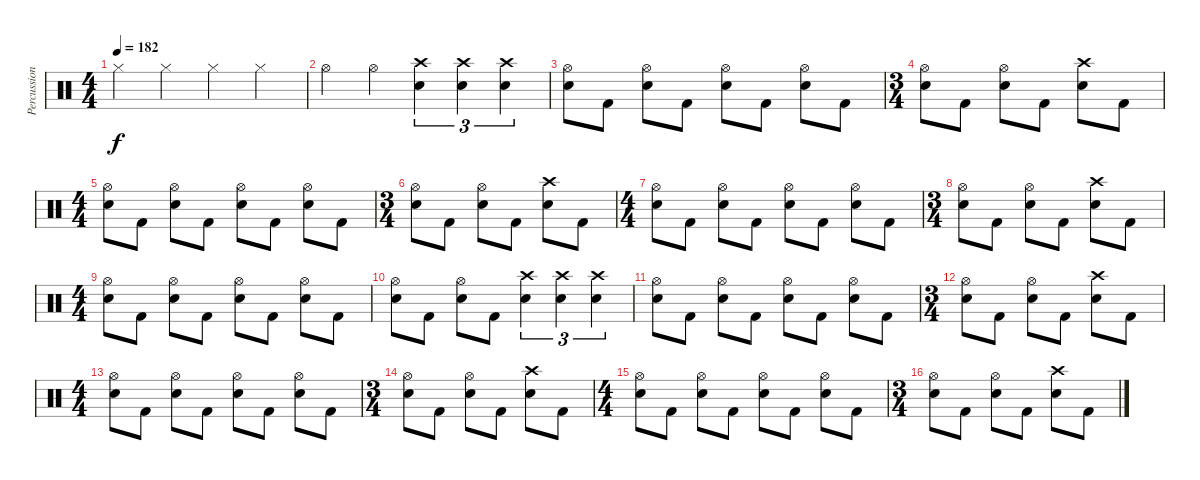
\track ("Percussion" "Percussion") {instrument percussion}
\staff {score}
\articulation defaults
\ts (4 4)
\tempo 182
\clef neutral
\ks c "Hi-Hat (closed)".4{dy f} "Hi-Hat (closed)".4 "Hi-Hat (closed)".4 "Hi-Hat (closed)".4
|
"Hi-Hat (open)".4 "Hi-Hat (open)".4 ("Crash high (hit)" "Snare (hit) 2").4{tu (3 2)} ("Crash high (hit)" "Snare (hit) 2").4{tu (3 2)} ("Crash high (hit)" "Snare (hit) 2").4{tu (3 2)} |
("Hi-Hat (open)" "Snare (hit) 2").8 "Kick (hit) 2".8 ("Hi-Hat (open)" "Snare (hit) 2").8 "Kick (hit) 2".8 ("Hi-Hat (open)" "Snare (hit) 2").8 "Kick (hit) 2".8 ("Hi-Hat (open)" "Snare (hit) 2").8 "Kick (hit) 2".8 |
\ts (3 4)
("Hi-Hat (open)" "Snare (hit) 2").8 "Kick (hit) 2".8 ("Hi-Hat (open)" "Snare (hit) 2").8 "Kick (hit) 2".8 ("Crash high (hit)" "Snare (hit) 2").8 "Kick (hit) 2".8 |
\ts (4 4)
("Hi-Hat (open)" "Snare (hit) 2").8 "Kick (hit) 2".8 ("Hi-Hat (open)" "Snare (hit) 2").8 "Kick (hit) 2".8 ("Hi-Hat (open)" "Snare (hit) 2").8 "Kick (hit) 2".8 ("Hi-Hat (open)" "Snare (hit) 2").8 "Kick (hit) 2".8 |
\ts (3 4)
("Hi-Hat (open)" "Snare (hit) 2").8 "Kick (hit) 2".8 ("Hi-Hat (open)" "Snare (hit) 2").8 "Kick (hit) 2".8 ("Crash high (hit)" "Snare (hit) 2").8 "Kick (hit) 2".8 |
\ts (4 4)
("Hi-Hat (open)" "Snare (hit) 2").8 "Kick (hit) 2".8 ("Hi-Hat (open)" "Snare (hit) 2").8 "Kick (hit) 2".8 ("Hi-Hat (open)" "Snare (hit) 2").8 "Kick (hit) 2".8 ("Hi-Hat (open)" "Snare (hit) 2").8 "Kick (hit) 2".8 |
\ts (3 4)
("Hi-Hat (open)" "Snare (hit) 2").8 "Kick (hit) 2".8 ("Hi-Hat (open)" "Snare (hit) 2").8 "Kick (hit) 2".8 ("Crash high (hit)" "Snare (hit) 2").8 "Kick (hit) 2".8 |
\ts (4 4)
("Hi-Hat (open)" "Snare (hit) 2").8 "Kick (hit) 2".8 ("Hi-Hat (open)" "Snare (hit) 2").8 "Kick (hit) 2".8 ("Hi-Hat (open)" "Snare (hit) 2").8 "Kick (hit) 2".8 ("Hi-Hat (open)" "Snare (hit) 2").8 "Kick (hit) 2".8 |
("Hi-Hat (open)" "Snare (hit) 2").8 "Kick (hit) 2".8 ("Hi-Hat (open)" "Snare (hit) 2").8 "Kick (hit) 2".8 ("Crash high (hit)" "Snare (hit) 2").4{tu (3 2)} ("Crash high (hit)" "Snare (hit) 2").4{tu (3 2)} ("Crash high (hit)" "Snare (hit) 2").4{tu (3 2)} |
("Hi-Hat (open)" "Snare (hit) 2").8 "Kick (hit) 2".8 ("Hi-Hat (open)" "Snare (hit) 2").8 "Kick (hit) 2".8 ("Hi-Hat (open)" "Snare (hit) 2").8 "Kick (hit) 2".8 ("Hi-Hat (open)" "Snare (hit) 2").8 "Kick (hit) 2".8 |
\ts (3 4)
("Hi-Hat (open)" "Snare (hit) 2").8 "Kick (hit) 2".8 ("Hi-Hat (open)" "Snare (hit) 2").8 "Kick (hit) 2".8 ("Crash high (hit)" "Snare (hit) 2").8 "Kick (hit) 2".8 |
\ts (4 4)
("Hi-Hat (open)" "Snare (hit) 2").8 "Kick (hit) 2".8 ("Hi-Hat (open)" "Snare (hit) 2").8 "Kick (hit) 2".8 ("Hi-Hat (open)" "Snare (hit) 2").8 "Kick (hit) 2".8 ("Hi-Hat (open)" "Snare (hit) 2").8 "Kick (hit) 2".8 |
\ts (3 4)
("Hi-Hat (open)" "Snare (hit) 2").8 "Kick (hit) 2".8 ("Hi-Hat (open)" "Snare (hit) 2").8 "Kick (hit) 2".8 ("Crash high (hit)" "Snare (hit) 2").8 "Kick (hit) 2".8 |
\ts (4 4)
("Hi-Hat (open)" "Snare (hit) 2").8 "Kick (hit) 2".8 ("Hi-Hat (open)" "Snare (hit) 2").8 "Kick (hit) 2".8 ("Hi-Hat (open)" "Snare (hit) 2").8 "Kick (hit) 2".8 ("Hi-Hat (open)" "Snare (hit) 2").8 "Kick (hit) 2".8 |
\ts (3 4)
("Hi-Hat (open)" "Snare (hit) 2").8 "Kick (hit) 2".8 ("Hi-Hat (open)" "Snare (hit) 2").8 "Kick (hit) 2".8 ("Crash high (hit)" "Snare (hit) 2").8 "Kick (hit) 2".8
